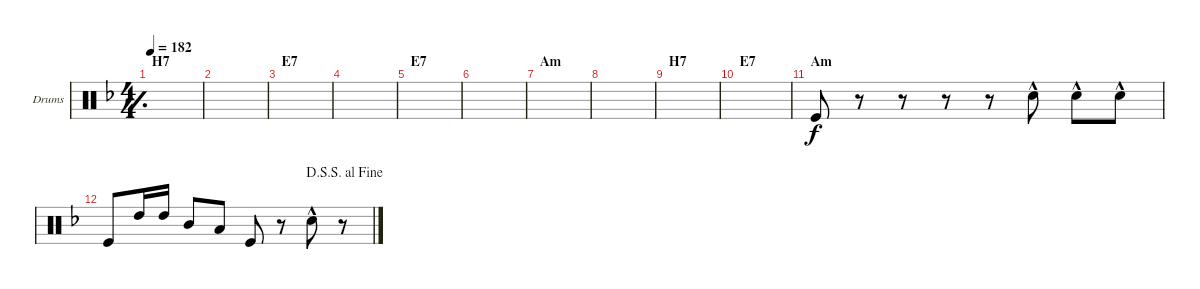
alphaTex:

\defaultSystemsLayout 4
\bracketExtendMode groupsimilarinstruments
\firstSystemTrackNameOrientation horizontal
\otherSystemsTrackNameOrientation horizontal
\track ("Drumkit" "Drums") {instrument percussion}
\staff {score}
\articulation defaults
\ts (4 4)
\section ("" "H7")
\tempo 182
\clef neutral
\simile simple
\ks f
|
|
\section ("" "E7")
|
|
\section ("" "E7")
|
|
\section ("" "Am")
|
|
\section ("" "H7")
|
\section ("" "E7")
|
\section ("" "Am")
\simile none "Kick (hit)".8
r.8 r.8 r.8 r.8 "Snare (hit) 2"{hac}.8 "Snare (hit) 2"{hac}.8 "Snare (hit) 2"{hac}.8 |
\jump dalsegnosegnoalfine "Kick (hit)".8 "High Tom (hit)".16 "High Tom (hit)".16 "Mid Tom (hit)".8 "Low Tom (hit)".8 "Kick (hit)".8
r.8 "Snare (hit) 2"{hac}.8 r.8
